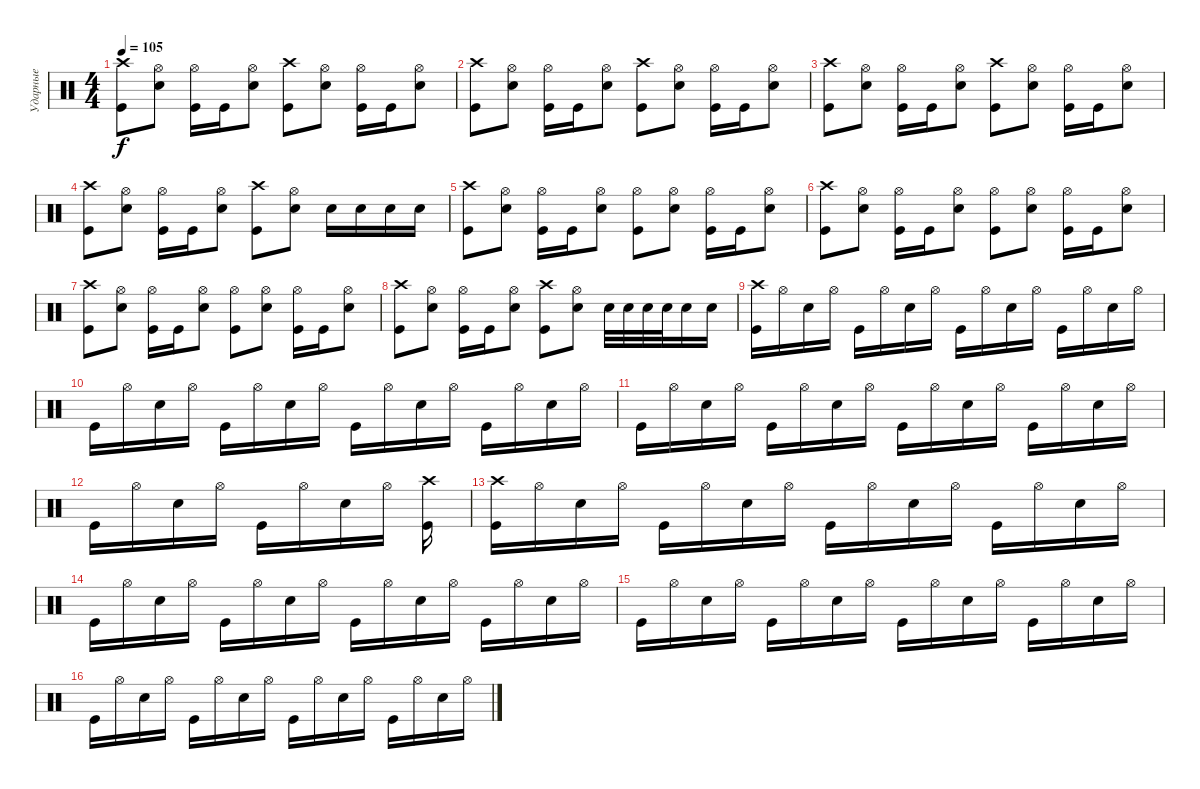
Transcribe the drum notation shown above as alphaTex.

\track ("Ударные" "Ударные") {instrument percussion}
\staff {score}
\articulation defaults
\ts (4 4)
\tempo 105
\clef neutral
\ks c
("Kick (hit)" "Crash high (hit)").8{dy f} ("Snare (hit) 2" "Hi-Hat (open)").8 ("Kick (hit)" "Hi-Hat (open)").16 "Kick (hit)".16 ("Snare (hit) 2" "Hi-Hat (open)").8 ("Kick (hit)" "Crash high (hit)").8 ("Snare (hit) 2" "Hi-Hat (open)").8 ("Kick (hit)" "Hi-Hat (open)").16 "Kick (hit)".16 ("Snare (hit) 2" "Hi-Hat (open)").8 |
("Kick (hit)" "Crash high (hit)").8 ("Snare (hit) 2" "Hi-Hat (open)").8 ("Kick (hit)" "Hi-Hat (open)").16 "Kick (hit)".16 ("Snare (hit) 2" "Hi-Hat (open)").8 ("Kick (hit)" "Crash high (hit)").8 ("Snare (hit) 2" "Hi-Hat (open)").8 ("Kick (hit)" "Hi-Hat (open)").16 "Kick (hit)".16 ("Snare (hit) 2" "Hi-Hat (open)").8 |
("Kick (hit)" "Crash high (hit)").8 ("Snare (hit) 2" "Hi-Hat (open)").8 ("Kick (hit)" "Hi-Hat (open)").16 "Kick (hit)".16 ("Snare (hit) 2" "Hi-Hat (open)").8 ("Kick (hit)" "Crash high (hit)").8 ("Snare (hit) 2" "Hi-Hat (open)").8 ("Kick (hit)" "Hi-Hat (open)").16 "Kick (hit)".16 ("Snare (hit) 2" "Hi-Hat (open)").8 |
("Kick (hit)" "Crash high (hit)").8 ("Snare (hit) 2" "Hi-Hat (open)").8 ("Kick (hit)" "Hi-Hat (open)").16 "Kick (hit)".16 ("Snare (hit) 2" "Hi-Hat (open)").8 ("Kick (hit)" "Crash high (hit)").8 ("Snare (hit) 2" "Hi-Hat (open)").8 "Snare (hit) 2".16 "Snare (hit) 2".16 "Snare (hit) 2".16 "Snare (hit) 2".16 |
("Kick (hit)" "Crash high (hit)").8 ("Snare (hit) 2" "Hi-Hat (open)").8 ("Kick (hit)" "Hi-Hat (open)").16 "Kick (hit)".16 ("Snare (hit) 2" "Hi-Hat (open)").8 ("Kick (hit)" "Hi-Hat (open)").8 ("Snare (hit) 2" "Hi-Hat (open)").8 ("Kick (hit)" "Hi-Hat (open)").16 "Kick (hit)".16 ("Snare (hit) 2" "Hi-Hat (open)").8 |
("Kick (hit)" "Crash high (hit)").8 ("Snare (hit) 2" "Hi-Hat (open)").8 ("Kick (hit)" "Hi-Hat (open)").16 "Kick (hit)".16 ("Snare (hit) 2" "Hi-Hat (open)").8 ("Kick (hit)" "Hi-Hat (open)").8 ("Snare (hit) 2" "Hi-Hat (open)").8 ("Kick (hit)" "Hi-Hat (open)").16 "Kick (hit)".16 ("Snare (hit) 2" "Hi-Hat (open)").8 |
("Kick (hit)" "Crash high (hit)").8 ("Snare (hit) 2" "Hi-Hat (open)").8 ("Kick (hit)" "Hi-Hat (open)").16 "Kick (hit)".16 ("Snare (hit) 2" "Hi-Hat (open)").8 ("Kick (hit)" "Hi-Hat (open)").8 ("Snare (hit) 2" "Hi-Hat (open)").8 ("Kick (hit)" "Hi-Hat (open)").16 "Kick (hit)".16 ("Snare (hit) 2" "Hi-Hat (open)").8 |
("Kick (hit)" "Crash high (hit)").8 ("Snare (hit) 2" "Hi-Hat (open)").8 ("Kick (hit)" "Hi-Hat (open)").16 "Kick (hit)".16 ("Snare (hit) 2" "Hi-Hat (open)").8 ("Kick (hit)" "Crash high (hit)").8 ("Snare (hit) 2" "Hi-Hat (open)").8 "Snare (hit) 2".32 "Snare (hit) 2".32 "Snare (hit) 2".32 "Snare (hit) 2".32 "Snare (hit) 2".16 "Snare (hit) 2".16 |
("Kick (hit)" "Crash high (hit)").16 "Hi-Hat (open)".16 "Snare (hit) 2".16 "Hi-Hat (open)".16 "Kick (hit)".16 "Hi-Hat (open)".16 "Snare (hit) 2".16 "Hi-Hat (open)".16 "Kick (hit)".16 "Hi-Hat (open)".16 "Snare (hit) 2".16 "Hi-Hat (open)".16 "Kick (hit)".16 "Hi-Hat (open)".16 "Snare (hit) 2".16 "Hi-Hat (open)".16 |
"Kick (hit)".16 "Hi-Hat (open)".16 "Snare (hit) 2".16 "Hi-Hat (open)".16 "Kick (hit)".16 "Hi-Hat (open)".16 "Snare (hit) 2".16 "Hi-Hat (open)".16 "Kick (hit)".16 "Hi-Hat (open)".16 "Snare (hit) 2".16 "Hi-Hat (open)".16 "Kick (hit)".16 "Hi-Hat (open)".16 "Snare (hit) 2".16 "Hi-Hat (open)".16 |
"Kick (hit)".16 "Hi-Hat (open)".16 "Snare (hit) 2".16 "Hi-Hat (open)".16 "Kick (hit)".16 "Hi-Hat (open)".16 "Snare (hit) 2".16 "Hi-Hat (open)".16 "Kick (hit)".16 "Hi-Hat (open)".16 "Snare (hit) 2".16 "Hi-Hat (open)".16 "Kick (hit)".16 "Hi-Hat (open)".16 "Snare (hit) 2".16 "Hi-Hat (open)".16 |
"Kick (hit)".16 "Hi-Hat (open)".16 "Snare (hit) 2".16 "Hi-Hat (open)".16 "Kick (hit)".16 "Hi-Hat (open)".16 "Snare (hit) 2".16 "Hi-Hat (open)".16 ("Kick (hit)" "Crash high (hit)").16 |
("Kick (hit)" "Crash high (hit)").16 "Hi-Hat (open)".16 "Snare (hit) 2".16 "Hi-Hat (open)".16 "Kick (hit)".16 "Hi-Hat (open)".16 "Snare (hit) 2".16 "Hi-Hat (open)".16 "Kick (hit)".16 "Hi-Hat (open)".16 "Snare (hit) 2".16 "Hi-Hat (open)".16 "Kick (hit)".16 "Hi-Hat (open)".16 "Snare (hit) 2".16 "Hi-Hat (open)".16 |
"Kick (hit)".16 "Hi-Hat (open)".16 "Snare (hit) 2".16 "Hi-Hat (open)".16 "Kick (hit)".16 "Hi-Hat (open)".16 "Snare (hit) 2".16 "Hi-Hat (open)".16 "Kick (hit)".16 "Hi-Hat (open)".16 "Snare (hit) 2".16 "Hi-Hat (open)".16 "Kick (hit)".16 "Hi-Hat (open)".16 "Snare (hit) 2".16 "Hi-Hat (open)".16 |
"Kick (hit)".16 "Hi-Hat (open)".16 "Snare (hit) 2".16 "Hi-Hat (open)".16 "Kick (hit)".16 "Hi-Hat (open)".16 "Snare (hit) 2".16 "Hi-Hat (open)".16 "Kick (hit)".16 "Hi-Hat (open)".16 "Snare (hit) 2".16 "Hi-Hat (open)".16 "Kick (hit)".16 "Hi-Hat (open)".16 "Snare (hit) 2".16 "Hi-Hat (open)".16 |
"Kick (hit)".16 "Hi-Hat (open)".16 "Snare (hit) 2".16 "Hi-Hat (open)".16 "Kick (hit)".16 "Hi-Hat (open)".16 "Snare (hit) 2".16 "Hi-Hat (open)".16 "Kick (hit)".16 "Hi-Hat (open)".16 "Snare (hit) 2".16 "Hi-Hat (open)".16 "Kick (hit)".16 "Hi-Hat (open)".16 "Snare (hit) 2".16 "Hi-Hat (open)".16
